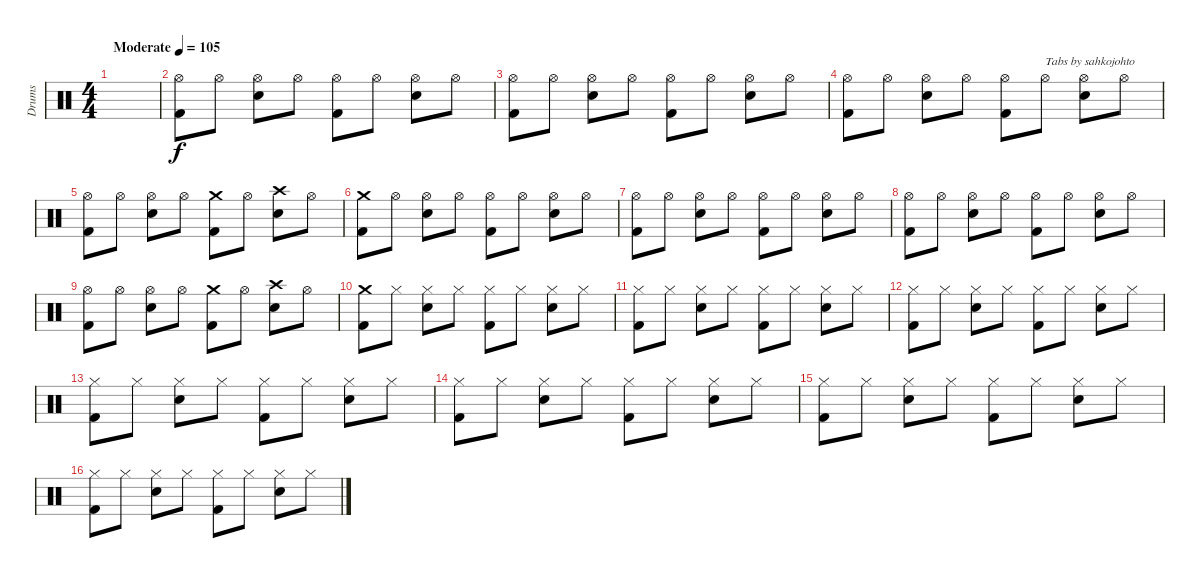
\track ("Drums" "Drums") {instrument percussion}
\staff {score}
\articulation defaults
\ts (4 4)
\tempo (105 "Moderate")
\clef neutral
\ks c
|
("Hi-Hat (open)" "Kick (hit) 2").8 "Hi-Hat (open)".8 ("Hi-Hat (open)" "Electric Snare (hit)").8 "Hi-Hat (open)".8 ("Hi-Hat (open)" "Kick (hit) 2").8 "Hi-Hat (open)".8 ("Hi-Hat (open)" "Electric Snare (hit)").8 "Hi-Hat (open)".8 |
("Hi-Hat (open)" "Kick (hit) 2").8 "Hi-Hat (open)".8 ("Hi-Hat (open)" "Electric Snare (hit)").8 "Hi-Hat (open)".8 ("Hi-Hat (open)" "Kick (hit) 2").8 "Hi-Hat (open)".8 ("Hi-Hat (open)" "Electric Snare (hit)").8 "Hi-Hat (open)".8 |
("Hi-Hat (open)" "Kick (hit) 2").8 "Hi-Hat (open)".8 ("Hi-Hat (open)" "Electric Snare (hit)").8 "Hi-Hat (open)".8 ("Hi-Hat (open)" "Kick (hit) 2").8 "Hi-Hat (open)".8{txt "Tabs by sahkojohto"} ("Hi-Hat (open)" "Electric Snare (hit)").8 "Hi-Hat (open)".8 |
("Hi-Hat (open)" "Kick (hit) 2").8 "Hi-Hat (open)".8 ("Hi-Hat (open)" "Electric Snare (hit)").8 "Hi-Hat (open)".8 ("Crash medium (hit)" "Kick (hit) 2").8 "Hi-Hat (open)".8 ("Crash high (hit)" "Electric Snare (hit)").8 "Hi-Hat (open)".8 |
("Crash medium (hit)" "Kick (hit) 2").8 "Hi-Hat (open)".8 ("Hi-Hat (open)" "Electric Snare (hit)").8 "Hi-Hat (open)".8 ("Hi-Hat (open)" "Kick (hit) 2").8 "Hi-Hat (open)".8 ("Hi-Hat (open)" "Electric Snare (hit)").8 "Hi-Hat (open)".8 |
("Hi-Hat (open)" "Kick (hit) 2").8 "Hi-Hat (open)".8 ("Hi-Hat (open)" "Electric Snare (hit)").8 "Hi-Hat (open)".8 ("Hi-Hat (open)" "Kick (hit) 2").8 "Hi-Hat (open)".8 ("Hi-Hat (open)" "Electric Snare (hit)").8 "Hi-Hat (open)".8 |
("Hi-Hat (open)" "Kick (hit) 2").8 "Hi-Hat (open)".8 ("Hi-Hat (open)" "Electric Snare (hit)").8 "Hi-Hat (open)".8 ("Hi-Hat (open)" "Kick (hit) 2").8 "Hi-Hat (open)".8 ("Hi-Hat (open)" "Electric Snare (hit)").8 "Hi-Hat (open)".8 |
("Hi-Hat (open)" "Kick (hit) 2").8 "Hi-Hat (open)".8 ("Hi-Hat (open)" "Electric Snare (hit)").8 "Hi-Hat (open)".8 ("Crash medium (hit)" "Kick (hit) 2").8 "Hi-Hat (open)".8 ("Crash high (hit)" "Electric Snare (hit)").8 "Hi-Hat (open)".8 |
("Crash medium (hit)" "Kick (hit) 2").8 "Hi-Hat (closed)".8 ("Hi-Hat (closed)" "Electric Snare (hit)").8 "Hi-Hat (closed)".8 ("Hi-Hat (closed)" "Kick (hit) 2").8 "Hi-Hat (closed)".8 ("Hi-Hat (closed)" "Electric Snare (hit)").8 "Hi-Hat (closed)".8 |
("Hi-Hat (closed)" "Kick (hit) 2").8 "Hi-Hat (closed)".8 ("Hi-Hat (closed)" "Electric Snare (hit)").8 "Hi-Hat (closed)".8 ("Hi-Hat (closed)" "Kick (hit) 2").8 "Hi-Hat (closed)".8 ("Hi-Hat (closed)" "Electric Snare (hit)").8 "Hi-Hat (closed)".8 |
("Hi-Hat (closed)" "Kick (hit) 2").8 "Hi-Hat (closed)".8 ("Hi-Hat (closed)" "Electric Snare (hit)").8 "Hi-Hat (closed)".8 ("Hi-Hat (closed)" "Kick (hit) 2").8 "Hi-Hat (closed)".8 ("Hi-Hat (closed)" "Electric Snare (hit)").8 "Hi-Hat (closed)".8 |
("Hi-Hat (closed)" "Kick (hit) 2").8 "Hi-Hat (closed)".8 ("Hi-Hat (closed)" "Electric Snare (hit)").8 "Hi-Hat (closed)".8 ("Hi-Hat (closed)" "Kick (hit) 2").8 "Hi-Hat (closed)".8 ("Hi-Hat (closed)" "Electric Snare (hit)").8 "Hi-Hat (closed)".8 |
("Hi-Hat (closed)" "Kick (hit) 2").8 "Hi-Hat (closed)".8 ("Hi-Hat (closed)" "Electric Snare (hit)").8 "Hi-Hat (closed)".8 ("Hi-Hat (closed)" "Kick (hit) 2").8 "Hi-Hat (closed)".8 ("Hi-Hat (closed)" "Electric Snare (hit)").8 "Hi-Hat (closed)".8 |
("Hi-Hat (closed)" "Kick (hit) 2").8 "Hi-Hat (closed)".8 ("Hi-Hat (closed)" "Electric Snare (hit)").8 "Hi-Hat (closed)".8 ("Hi-Hat (closed)" "Kick (hit) 2").8 "Hi-Hat (closed)".8 ("Hi-Hat (closed)" "Electric Snare (hit)").8 "Hi-Hat (closed)".8 |
("Hi-Hat (closed)" "Kick (hit) 2").8 "Hi-Hat (closed)".8 ("Hi-Hat (closed)" "Electric Snare (hit)").8 "Hi-Hat (closed)".8 ("Hi-Hat (closed)" "Kick (hit) 2").8 "Hi-Hat (closed)".8 ("Hi-Hat (closed)" "Electric Snare (hit)").8 "Hi-Hat (closed)".8
